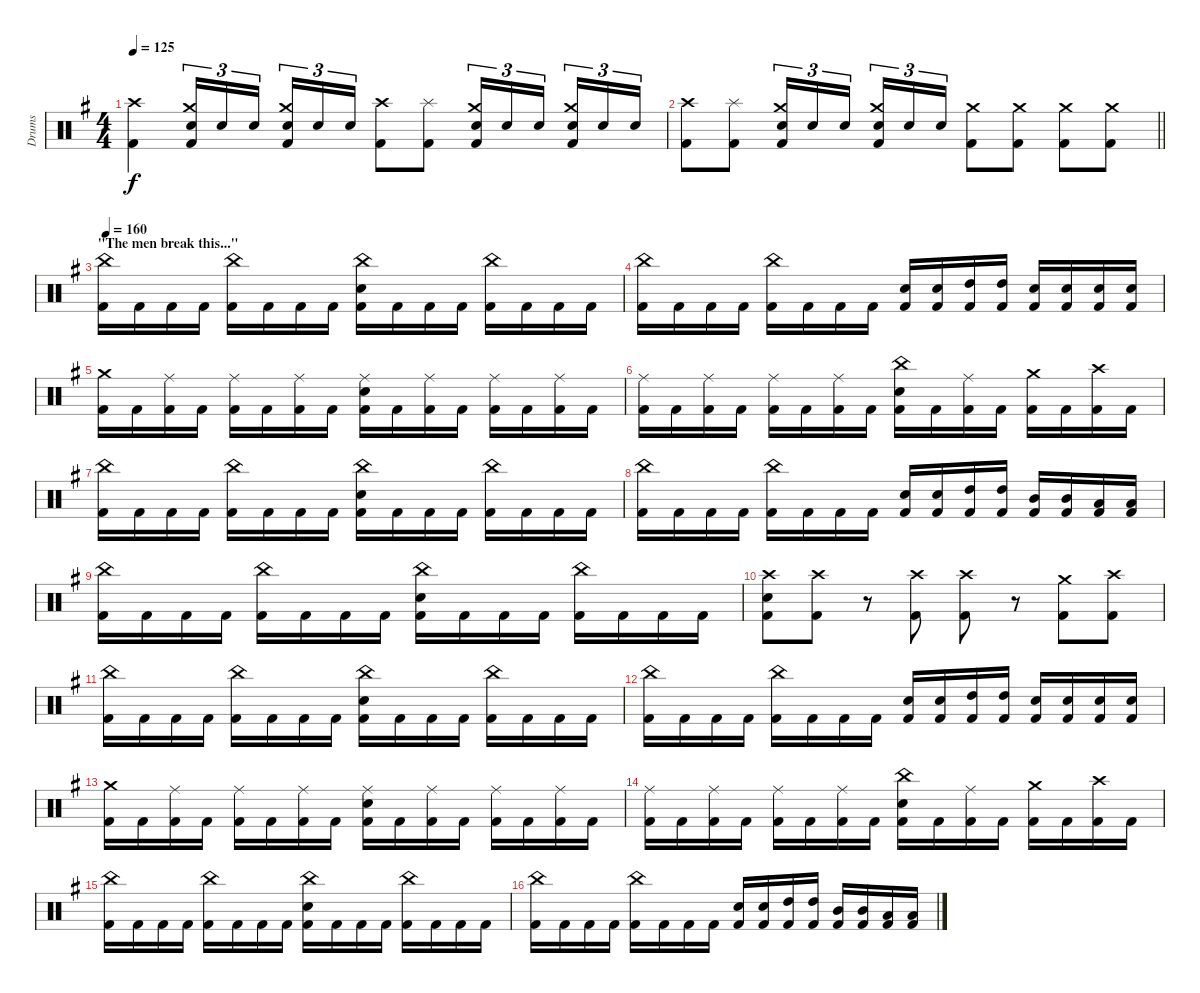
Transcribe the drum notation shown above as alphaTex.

\track ("Drums" "Drums") {instrument percussion}
\staff {score}
\articulation defaults
\ts (4 4)
\tempo 125
\clef neutral
\ks g
("Crash high (hit)" "Kick (hit) 2").4{dy f} ("Crash medium (hit)" "Electric Snare (hit)" "Kick (hit) 2").16{tu (3 2)} "Electric Snare (hit)".16{tu (3 2)} "Electric Snare (hit)".16{tu (3 2) beam splitsecondary} ("Crash medium (hit)" "Electric Snare (hit)" "Kick (hit) 2").16{tu (3 2)} "Electric Snare (hit)".16{tu (3 2)} "Electric Snare (hit)".16{tu (3 2)} ("Crash high (hit)" "Kick (hit) 2").8 ("Splash (hit)" "Kick (hit) 2").8 ("Crash medium (hit)" "Electric Snare (hit)" "Kick (hit) 2").16{tu (3 2)} "Electric Snare (hit)".16{tu (3 2)} "Electric Snare (hit)".16{tu (3 2) beam splitsecondary} ("Crash medium (hit)" "Electric Snare (hit)" "Kick (hit) 2").16{tu (3 2)} "Electric Snare (hit)".16{tu (3 2)} "Electric Snare (hit)".16{tu (3 2)} |
\barLineRight lightlight
("Crash high (hit)" "Kick (hit) 2").8 ("Splash (hit)" "Kick (hit) 2").8 ("Crash medium (hit)" "Electric Snare (hit)" "Kick (hit) 2").16{tu (3 2)} "Electric Snare (hit)".16{tu (3 2)} "Electric Snare (hit)".16{tu (3 2) beam splitsecondary} ("Crash medium (hit)" "Electric Snare (hit)" "Kick (hit) 2").16{tu (3 2)} "Electric Snare (hit)".16{tu (3 2)} "Electric Snare (hit)".16{tu (3 2)} ("Crash medium (hit)" "Kick (hit) 2").8 ("Crash medium (hit)" "Kick (hit) 2").8 ("Crash medium (hit)" "Kick (hit) 2").8 ("Crash medium (hit)" "Kick (hit) 2").8 |
\section ("" "\"The men break this...\"")
\tempo 160
("China (hit)" "Kick (hit) 2").16 "Kick (hit) 2".16 "Kick (hit) 2".16 "Kick (hit) 2".16 ("China (hit)" "Kick (hit) 2").16 "Kick (hit) 2".16 "Kick (hit) 2".16 "Kick (hit) 2".16 ("China (hit)" "Electric Snare (hit)" "Kick (hit) 2").16 "Kick (hit) 2".16 "Kick (hit) 2".16 "Kick (hit) 2".16 ("China (hit)" "Kick (hit) 2").16 "Kick (hit) 2".16 "Kick (hit) 2".16 "Kick (hit) 2".16 |
("China (hit)" "Kick (hit) 2").16 "Kick (hit) 2".16 "Kick (hit) 2".16 "Kick (hit) 2".16 ("China (hit)" "Kick (hit) 2").16 "Kick (hit) 2".16 "Kick (hit) 2".16 "Kick (hit) 2".16 ("Electric Snare (hit)" "Kick (hit) 2").16 ("Electric Snare (hit)" "Kick (hit) 2").16 ("High Tom (hit)" "Kick (hit) 2").16 ("High Tom (hit)" "Kick (hit) 2").16 ("Electric Snare (hit)" "Kick (hit) 2").16 ("Electric Snare (hit)" "Kick (hit) 2").16 ("Electric Snare (hit)" "Kick (hit) 2").16 ("Electric Snare (hit)" "Kick (hit) 2").16 |
("Crash medium (hit)" "Kick (hit) 2").16 "Kick (hit) 2".16 ("Ride (middle)" "Kick (hit) 2").16 "Kick (hit) 2".16 ("Ride (middle)" "Kick (hit) 2").16 "Kick (hit) 2".16 ("Ride (middle)" "Kick (hit) 2").16 "Kick (hit) 2".16 ("Ride (middle)" "Electric Snare (hit)" "Kick (hit) 2").16 "Kick (hit) 2".16 ("Ride (middle)" "Kick (hit) 2").16 "Kick (hit) 2".16 ("Ride (middle)" "Kick (hit) 2").16 "Kick (hit) 2".16 ("Ride (middle)" "Kick (hit) 2").16 "Kick (hit) 2".16 |
("Ride (middle)" "Kick (hit) 2").16 "Kick (hit) 2".16 ("Ride (middle)" "Kick (hit) 2").16 "Kick (hit) 2".16 ("Ride (middle)" "Kick (hit) 2").16 "Kick (hit) 2".16 ("Ride (middle)" "Kick (hit) 2").16 "Kick (hit) 2".16 ("China (hit)" "Electric Snare (hit)" "Kick (hit) 2").16 "Kick (hit) 2".16 ("Ride (middle)" "Kick (hit) 2").16 "Kick (hit) 2".16 ("Crash medium (hit)" "Kick (hit) 2").16 "Kick (hit) 2".16 ("Crash high (hit)" "Kick (hit) 2").16 "Kick (hit) 2".16 |
("China (hit)" "Kick (hit) 2").16 "Kick (hit) 2".16 "Kick (hit) 2".16 "Kick (hit) 2".16 ("China (hit)" "Kick (hit) 2").16 "Kick (hit) 2".16 "Kick (hit) 2".16 "Kick (hit) 2".16 ("China (hit)" "Electric Snare (hit)" "Kick (hit) 2").16 "Kick (hit) 2".16 "Kick (hit) 2".16 "Kick (hit) 2".16 ("China (hit)" "Kick (hit) 2").16 "Kick (hit) 2".16 "Kick (hit) 2".16 "Kick (hit) 2".16 |
("China (hit)" "Kick (hit) 2").16 "Kick (hit) 2".16 "Kick (hit) 2".16 "Kick (hit) 2".16 ("China (hit)" "Kick (hit) 2").16 "Kick (hit) 2".16 "Kick (hit) 2".16 "Kick (hit) 2".16 ("Electric Snare (hit)" "Kick (hit) 2").16 ("Electric Snare (hit)" "Kick (hit) 2").16 ("High Tom (hit)" "Kick (hit) 2").16 ("High Tom (hit)" "Kick (hit) 2").16 ("Mid Tom (hit)" "Kick (hit) 2").16 ("Mid Tom (hit)" "Kick (hit) 2").16 ("Low Tom (hit)" "Kick (hit) 2").16 ("Low Tom (hit)" "Kick (hit) 2").16 |
("China (hit)" "Kick (hit) 2").16 "Kick (hit) 2".16 "Kick (hit) 2".16 "Kick (hit) 2".16 ("China (hit)" "Kick (hit) 2").16 "Kick (hit) 2".16 "Kick (hit) 2".16 "Kick (hit) 2".16 ("China (hit)" "Electric Snare (hit)" "Kick (hit) 2").16 "Kick (hit) 2".16 "Kick (hit) 2".16 "Kick (hit) 2".16 ("China (hit)" "Kick (hit) 2").16 "Kick (hit) 2".16 "Kick (hit) 2".16 "Kick (hit) 2".16 |
("Crash high (hit)" "Electric Snare (hit)" "Kick (hit) 2").8 ("Crash high (hit)" "Kick (hit) 2").8 r.8 ("Crash high (hit)" "Kick (hit) 2").8 ("Crash high (hit)" "Kick (hit) 2").8 r.8 ("Crash medium (hit)" "Kick (hit) 2").8 ("Crash high (hit)" "Kick (hit) 2").8 |
("China (hit)" "Kick (hit) 2").16 "Kick (hit) 2".16 "Kick (hit) 2".16 "Kick (hit) 2".16 ("China (hit)" "Kick (hit) 2").16 "Kick (hit) 2".16 "Kick (hit) 2".16 "Kick (hit) 2".16 ("China (hit)" "Electric Snare (hit)" "Kick (hit) 2").16 "Kick (hit) 2".16 "Kick (hit) 2".16 "Kick (hit) 2".16 ("China (hit)" "Kick (hit) 2").16 "Kick (hit) 2".16 "Kick (hit) 2".16 "Kick (hit) 2".16 |
("China (hit)" "Kick (hit) 2").16 "Kick (hit) 2".16 "Kick (hit) 2".16 "Kick (hit) 2".16 ("China (hit)" "Kick (hit) 2").16 "Kick (hit) 2".16 "Kick (hit) 2".16 "Kick (hit) 2".16 ("Electric Snare (hit)" "Kick (hit) 2").16 ("Electric Snare (hit)" "Kick (hit) 2").16 ("High Tom (hit)" "Kick (hit) 2").16 ("High Tom (hit)" "Kick (hit) 2").16 ("Electric Snare (hit)" "Kick (hit) 2").16 ("Electric Snare (hit)" "Kick (hit) 2").16 ("Electric Snare (hit)" "Kick (hit) 2").16 ("Electric Snare (hit)" "Kick (hit) 2").16 |
("Crash medium (hit)" "Kick (hit) 2").16 "Kick (hit) 2".16 ("Ride (middle)" "Kick (hit) 2").16 "Kick (hit) 2".16 ("Ride (middle)" "Kick (hit) 2").16 "Kick (hit) 2".16 ("Ride (middle)" "Kick (hit) 2").16 "Kick (hit) 2".16 ("Ride (middle)" "Electric Snare (hit)" "Kick (hit) 2").16 "Kick (hit) 2".16 ("Ride (middle)" "Kick (hit) 2").16 "Kick (hit) 2".16 ("Ride (middle)" "Kick (hit) 2").16 "Kick (hit) 2".16 ("Ride (middle)" "Kick (hit) 2").16 "Kick (hit) 2".16 |
("Ride (middle)" "Kick (hit) 2").16 "Kick (hit) 2".16 ("Ride (middle)" "Kick (hit) 2").16 "Kick (hit) 2".16 ("Ride (middle)" "Kick (hit) 2").16 "Kick (hit) 2".16 ("Ride (middle)" "Kick (hit) 2").16 "Kick (hit) 2".16 ("China (hit)" "Electric Snare (hit)" "Kick (hit) 2").16 "Kick (hit) 2".16 ("Ride (middle)" "Kick (hit) 2").16 "Kick (hit) 2".16 ("Crash medium (hit)" "Kick (hit) 2").16 "Kick (hit) 2".16 ("Crash high (hit)" "Kick (hit) 2").16 "Kick (hit) 2".16 |
("China (hit)" "Kick (hit) 2").16 "Kick (hit) 2".16 "Kick (hit) 2".16 "Kick (hit) 2".16 ("China (hit)" "Kick (hit) 2").16 "Kick (hit) 2".16 "Kick (hit) 2".16 "Kick (hit) 2".16 ("China (hit)" "Electric Snare (hit)" "Kick (hit) 2").16 "Kick (hit) 2".16 "Kick (hit) 2".16 "Kick (hit) 2".16 ("China (hit)" "Kick (hit) 2").16 "Kick (hit) 2".16 "Kick (hit) 2".16 "Kick (hit) 2".16 |
("China (hit)" "Kick (hit) 2").16 "Kick (hit) 2".16 "Kick (hit) 2".16 "Kick (hit) 2".16 ("China (hit)" "Kick (hit) 2").16 "Kick (hit) 2".16 "Kick (hit) 2".16 "Kick (hit) 2".16 ("Electric Snare (hit)" "Kick (hit) 2").16 ("Electric Snare (hit)" "Kick (hit) 2").16 ("High Tom (hit)" "Kick (hit) 2").16 ("High Tom (hit)" "Kick (hit) 2").16 ("Mid Tom (hit)" "Kick (hit) 2").16 ("Mid Tom (hit)" "Kick (hit) 2").16 ("Low Tom (hit)" "Kick (hit) 2").16 ("Low Tom (hit)" "Kick (hit) 2").16
